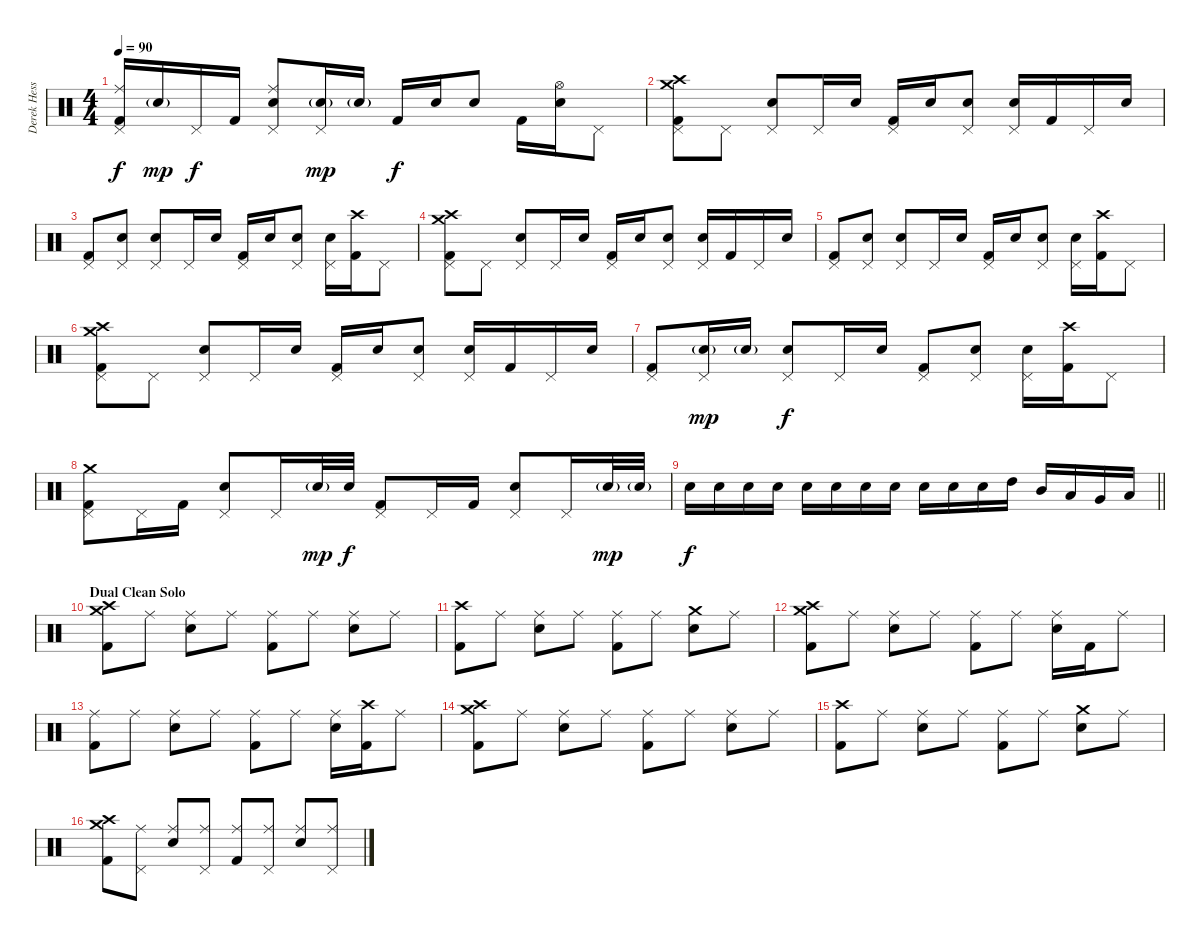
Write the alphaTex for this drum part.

\track ("Derek Hess (Drums and Percussion)" "Derek Hess") {instrument percussion}
\staff {score}
\articulation defaults
\ts (4 4)
\tempo 90
\clef neutral
\ks c
("Ride (middle)" "Pedal Hi-Hat (hit)" "Kick (hit) 2").16{dy f} "Snare (hit) 2"{g}.16{dy mp} "Pedal Hi-Hat (hit)".16{dy f} "Kick (hit) 2".16 ("Ride (middle)" "Snare (hit) 2" "Pedal Hi-Hat (hit)").8 ("Snare (hit) 2"{g} "Pedal Hi-Hat (hit)").16{dy mp} "Snare (hit) 2"{g}.16 "Kick (hit) 2".16{dy f} "Snare (hit) 2".16 "Snare (hit) 2".8 "Kick (hit) 2".16 ("Snare (hit) 2" "Hi-Hat (open)").16 "Pedal Hi-Hat (hit)".8 |
("Crash medium (hit)" "Crash high (hit)" "Pedal Hi-Hat (hit)" "Kick (hit) 2").8 "Pedal Hi-Hat (hit)".8 ("Snare (hit) 2" "Pedal Hi-Hat (hit)").8 "Pedal Hi-Hat (hit)".16 "Snare (hit) 2".16 ("Pedal Hi-Hat (hit)" "Kick (hit) 2").16 "Snare (hit) 2".16 ("Snare (hit) 2" "Pedal Hi-Hat (hit)").8 ("Snare (hit) 2" "Pedal Hi-Hat (hit)").16 "Kick (hit) 2".16 "Pedal Hi-Hat (hit)".16 "Snare (hit) 2".16 |
("Pedal Hi-Hat (hit)" "Kick (hit) 2").8 ("Snare (hit) 2" "Pedal Hi-Hat (hit)").8 ("Snare (hit) 2" "Pedal Hi-Hat (hit)").8 "Pedal Hi-Hat (hit)".16 "Snare (hit) 2".16 ("Pedal Hi-Hat (hit)" "Kick (hit) 2").16 "Snare (hit) 2".16 ("Snare (hit) 2" "Pedal Hi-Hat (hit)").8 ("Snare (hit) 2" "Pedal Hi-Hat (hit)").16 ("Crash high (hit)" "Kick (hit) 2").16 "Pedal Hi-Hat (hit)".8 |
("Crash medium (hit)" "Crash high (hit)" "Pedal Hi-Hat (hit)" "Kick (hit) 2").8 "Pedal Hi-Hat (hit)".8 ("Snare (hit) 2" "Pedal Hi-Hat (hit)").8 "Pedal Hi-Hat (hit)".16 "Snare (hit) 2".16 ("Pedal Hi-Hat (hit)" "Kick (hit) 2").16 "Snare (hit) 2".16 ("Snare (hit) 2" "Pedal Hi-Hat (hit)").8 ("Snare (hit) 2" "Pedal Hi-Hat (hit)").16 "Kick (hit) 2".16 "Pedal Hi-Hat (hit)".16 "Snare (hit) 2".16 |
("Pedal Hi-Hat (hit)" "Kick (hit) 2").8 ("Snare (hit) 2" "Pedal Hi-Hat (hit)").8 ("Snare (hit) 2" "Pedal Hi-Hat (hit)").8 "Pedal Hi-Hat (hit)".16 "Snare (hit) 2".16 ("Pedal Hi-Hat (hit)" "Kick (hit) 2").16 "Snare (hit) 2".16 ("Snare (hit) 2" "Pedal Hi-Hat (hit)").8 ("Snare (hit) 2" "Pedal Hi-Hat (hit)").16 ("Crash high (hit)" "Kick (hit) 2").16 "Pedal Hi-Hat (hit)".8 |
("Crash medium (hit)" "Crash high (hit)" "Pedal Hi-Hat (hit)" "Kick (hit) 2").8 "Pedal Hi-Hat (hit)".8 ("Snare (hit) 2" "Pedal Hi-Hat (hit)").8 "Pedal Hi-Hat (hit)".16 "Snare (hit) 2".16 ("Pedal Hi-Hat (hit)" "Kick (hit) 2").16 "Snare (hit) 2".16 ("Snare (hit) 2" "Pedal Hi-Hat (hit)").8 ("Snare (hit) 2" "Pedal Hi-Hat (hit)").16 "Kick (hit) 2".16 "Pedal Hi-Hat (hit)".16 "Snare (hit) 2".16 |
("Pedal Hi-Hat (hit)" "Kick (hit) 2").8 ("Snare (hit) 2"{g} "Pedal Hi-Hat (hit)").16{dy mp} "Snare (hit) 2"{g}.16 ("Snare (hit) 2" "Pedal Hi-Hat (hit)").8{dy f} "Pedal Hi-Hat (hit)".16 "Snare (hit) 2".16 ("Pedal Hi-Hat (hit)" "Kick (hit) 2").8 ("Snare (hit) 2" "Pedal Hi-Hat (hit)").8 ("Snare (hit) 2" "Pedal Hi-Hat (hit)").16 ("Crash high (hit)" "Kick (hit) 2").16 "Pedal Hi-Hat (hit)".8 |
("Crash medium (hit)" "Pedal Hi-Hat (hit)" "Kick (hit) 2").8 "Pedal Hi-Hat (hit)".16 "Kick (hit) 2".16 ("Snare (hit) 2" "Pedal Hi-Hat (hit)").8 "Pedal Hi-Hat (hit)".16 "Snare (hit) 2"{g}.32{dy mp} "Snare (hit) 2".32{dy f} ("Pedal Hi-Hat (hit)" "Kick (hit) 2").8 "Pedal Hi-Hat (hit)".16 "Kick (hit) 2".16 ("Snare (hit) 2" "Pedal Hi-Hat (hit)").8 "Pedal Hi-Hat (hit)".16 "Snare (hit) 2"{g}.32{dy mp} "Snare (hit) 2"{g}.32 |
\barLineRight lightlight "Snare (hit) 2".16{dy f} "Snare (hit) 2".16 "Snare (hit) 2".16 "Snare (hit) 2".16 "Snare (hit) 2".16 "Snare (hit) 2".16 "Snare (hit) 2".16 "Snare (hit) 2".16 "Snare (hit) 2".16 "Snare (hit) 2".16 "Snare (hit) 2".16 "High Tom (hit)".16 "Mid Tom (hit)".16 "Low Tom (hit)".16 "Very Low Tom (hit)".16 "Low Floor Tom (hit)".16
|
\section ("" "Dual Clean Solo")
("Crash medium (hit)" "Crash high (hit)" "Kick (hit) 2").8 "Ride (middle)".8 ("Ride (middle)" "Snare (hit) 2").8 "Ride (middle)".8 ("Ride (middle)" "Kick (hit) 2").8 "Ride (middle)".8 ("Ride (middle)" "Snare (hit) 2").8 "Ride (middle)".8 |
("Crash high (hit)" "Kick (hit) 2").8 "Ride (middle)".8 ("Ride (middle)" "Snare (hit) 2").8 "Ride (middle)".8 ("Ride (middle)" "Kick (hit) 2").8 "Ride (middle)".8 ("Crash medium (hit)" "Snare (hit) 2").8 "Ride (middle)".8 |
("Crash medium (hit)" "Crash high (hit)" "Kick (hit) 2").8 "Ride (middle)".8 ("Ride (middle)" "Snare (hit) 2").8 "Ride (middle)".8 ("Ride (middle)" "Kick (hit) 2").8 "Ride (middle)".8 ("Ride (middle)" "Snare (hit) 2").16 "Kick (hit) 2".16 "Ride (middle)".8 |
("Ride (middle)" "Kick (hit) 2").8 "Ride (middle)".8 ("Ride (middle)" "Snare (hit) 2").8 "Ride (middle)".8 ("Ride (middle)" "Kick (hit) 2").8 "Ride (middle)".8 ("Ride (middle)" "Snare (hit) 2").16 ("Crash high (hit)" "Kick (hit) 2").16 "Ride (middle)".8 |
("Crash medium (hit)" "Crash high (hit)" "Kick (hit) 2").8 "Ride (middle)".8 ("Ride (middle)" "Snare (hit) 2").8 "Ride (middle)".8 ("Ride (middle)" "Kick (hit) 2").8 "Ride (middle)".8 ("Ride (middle)" "Snare (hit) 2").8 "Ride (middle)".8 |
("Crash high (hit)" "Kick (hit) 2").8 "Ride (middle)".8 ("Ride (middle)" "Snare (hit) 2").8 "Ride (middle)".8 ("Ride (middle)" "Kick (hit) 2").8 "Ride (middle)".8 ("Crash medium (hit)" "Snare (hit) 2").8 "Ride (middle)".8 |
("Crash medium (hit)" "Crash high (hit)" "Kick (hit) 2").8 ("Ride (middle)" "Pedal Hi-Hat (hit)").8 ("Ride (middle)" "Snare (hit) 2").8 ("Ride (middle)" "Pedal Hi-Hat (hit)").8 ("Ride (middle)" "Kick (hit) 2").8 ("Ride (middle)" "Pedal Hi-Hat (hit)").8 ("Ride (middle)" "Snare (hit) 2").8 ("Ride (middle)" "Pedal Hi-Hat (hit)").8
